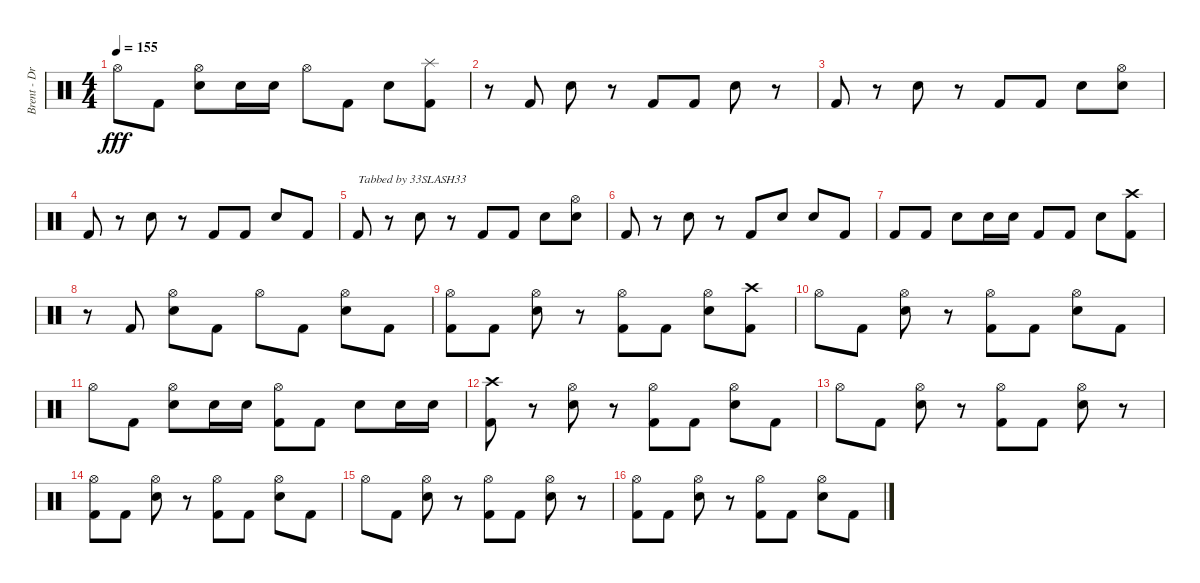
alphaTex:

\track ("Brent - Drums" "Brent - Dr") {instrument percussion}
\staff {score}
\articulation defaults
\ts (4 4)
\tempo 155
\clef neutral
\ks c "Hi-Hat (open)".8{dy fff} "Kick (hit) 2".8
("Hi-Hat (open)" "Snare (hit) 2").8 "Snare (hit) 2".16 "Snare (hit) 2".16 "Hi-Hat (open)".8 "Kick (hit) 2".8 "Snare (hit) 2".8 ("Splash (hit)" "Kick (hit) 2").8 |
r.8 "Kick (hit) 2".8 "Snare (hit) 2".8 r.8 "Kick (hit) 2".8 "Kick (hit) 2".8 "Snare (hit) 2".8 r.8 |
"Kick (hit) 2".8 r.8 "Snare (hit) 2".8 r.8 "Kick (hit) 2".8 "Kick (hit) 2".8 "Snare (hit) 2".8 ("Hi-Hat (open)" "Snare (hit) 2").8 |
"Kick (hit) 2".8 r.8 "Snare (hit) 2".8 r.8 "Kick (hit) 2".8 "Kick (hit) 2".8 "Snare (hit) 2".8 "Kick (hit) 2".8 |
"Kick (hit) 2".8{txt "Tabbed by 33SLASH33"} r.8 "Snare (hit) 2".8 r.8 "Kick (hit) 2".8 "Kick (hit) 2".8 "Snare (hit) 2".8 ("Hi-Hat (open)" "Snare (hit) 2").8 |
"Kick (hit) 2".8 r.8 "Snare (hit) 2".8 r.8 "Kick (hit) 2".8 "Snare (hit) 2".8 "Snare (hit) 2".8 "Kick (hit) 2".8 |
"Kick (hit) 2".8 "Kick (hit) 2".8 "Snare (hit) 2".8 "Snare (hit) 2".16 "Snare (hit) 2".16 "Kick (hit) 2".8 "Kick (hit) 2".8 "Snare (hit) 2".8 ("Crash high (hit)" "Kick (hit) 2").8 |
r.8 "Kick (hit) 2".8 ("Hi-Hat (open)" "Snare (hit) 2").8 "Kick (hit) 2".8 "Hi-Hat (open)".8 "Kick (hit) 2".8 ("Hi-Hat (open)" "Snare (hit) 2").8 "Kick (hit) 2".8 |
("Hi-Hat (open)" "Kick (hit) 2").8 "Kick (hit) 2".8 ("Hi-Hat (open)" "Snare (hit) 2").8 r.8 ("Hi-Hat (open)" "Kick (hit) 2").8 "Kick (hit) 2".8 ("Hi-Hat (open)" "Snare (hit) 2").8 ("Crash high (hit)" "Kick (hit) 2").8 |
"Hi-Hat (open)".8 "Kick (hit) 2".8 ("Hi-Hat (open)" "Snare (hit) 2").8 r.8 ("Hi-Hat (open)" "Kick (hit) 2").8 "Kick (hit) 2".8 ("Hi-Hat (open)" "Snare (hit) 2").8 "Kick (hit) 2".8 |
"Hi-Hat (open)".8 "Kick (hit) 2".8 ("Hi-Hat (open)" "Snare (hit) 2").8 "Snare (hit) 2".16 "Snare (hit) 2".16 ("Hi-Hat (open)" "Kick (hit) 2").8 "Kick (hit) 2".8 "Snare (hit) 2".8 "Snare (hit) 2".16 "Snare (hit) 2".16 |
("Crash high (hit)" "Kick (hit) 2").8 r.8 ("Hi-Hat (open)" "Snare (hit) 2").8 r.8 ("Hi-Hat (open)" "Kick (hit) 2").8 "Kick (hit) 2".8 ("Hi-Hat (open)" "Snare (hit) 2").8 "Kick (hit) 2".8 |
"Hi-Hat (open)".8 "Kick (hit) 2".8 ("Hi-Hat (open)" "Snare (hit) 2").8 r.8 ("Hi-Hat (open)" "Kick (hit) 2").8 "Kick (hit) 2".8 ("Hi-Hat (open)" "Snare (hit) 2").8 r.8 |
("Hi-Hat (open)" "Kick (hit) 2").8 "Kick (hit) 2".8 ("Hi-Hat (open)" "Snare (hit) 2").8 r.8 ("Hi-Hat (open)" "Kick (hit) 2").8 "Kick (hit) 2".8 ("Hi-Hat (open)" "Snare (hit) 2").8 "Kick (hit) 2".8 |
"Hi-Hat (open)".8 "Kick (hit) 2".8 ("Hi-Hat (open)" "Snare (hit) 2").8 r.8 ("Hi-Hat (open)" "Kick (hit) 2").8 "Kick (hit) 2".8 ("Hi-Hat (open)" "Snare (hit) 2").8 r.8 |
("Hi-Hat (open)" "Kick (hit) 2").8 "Kick (hit) 2".8 ("Hi-Hat (open)" "Snare (hit) 2").8 r.8 ("Hi-Hat (open)" "Kick (hit) 2").8 "Kick (hit) 2".8 ("Hi-Hat (open)" "Snare (hit) 2").8 "Kick (hit) 2".8
